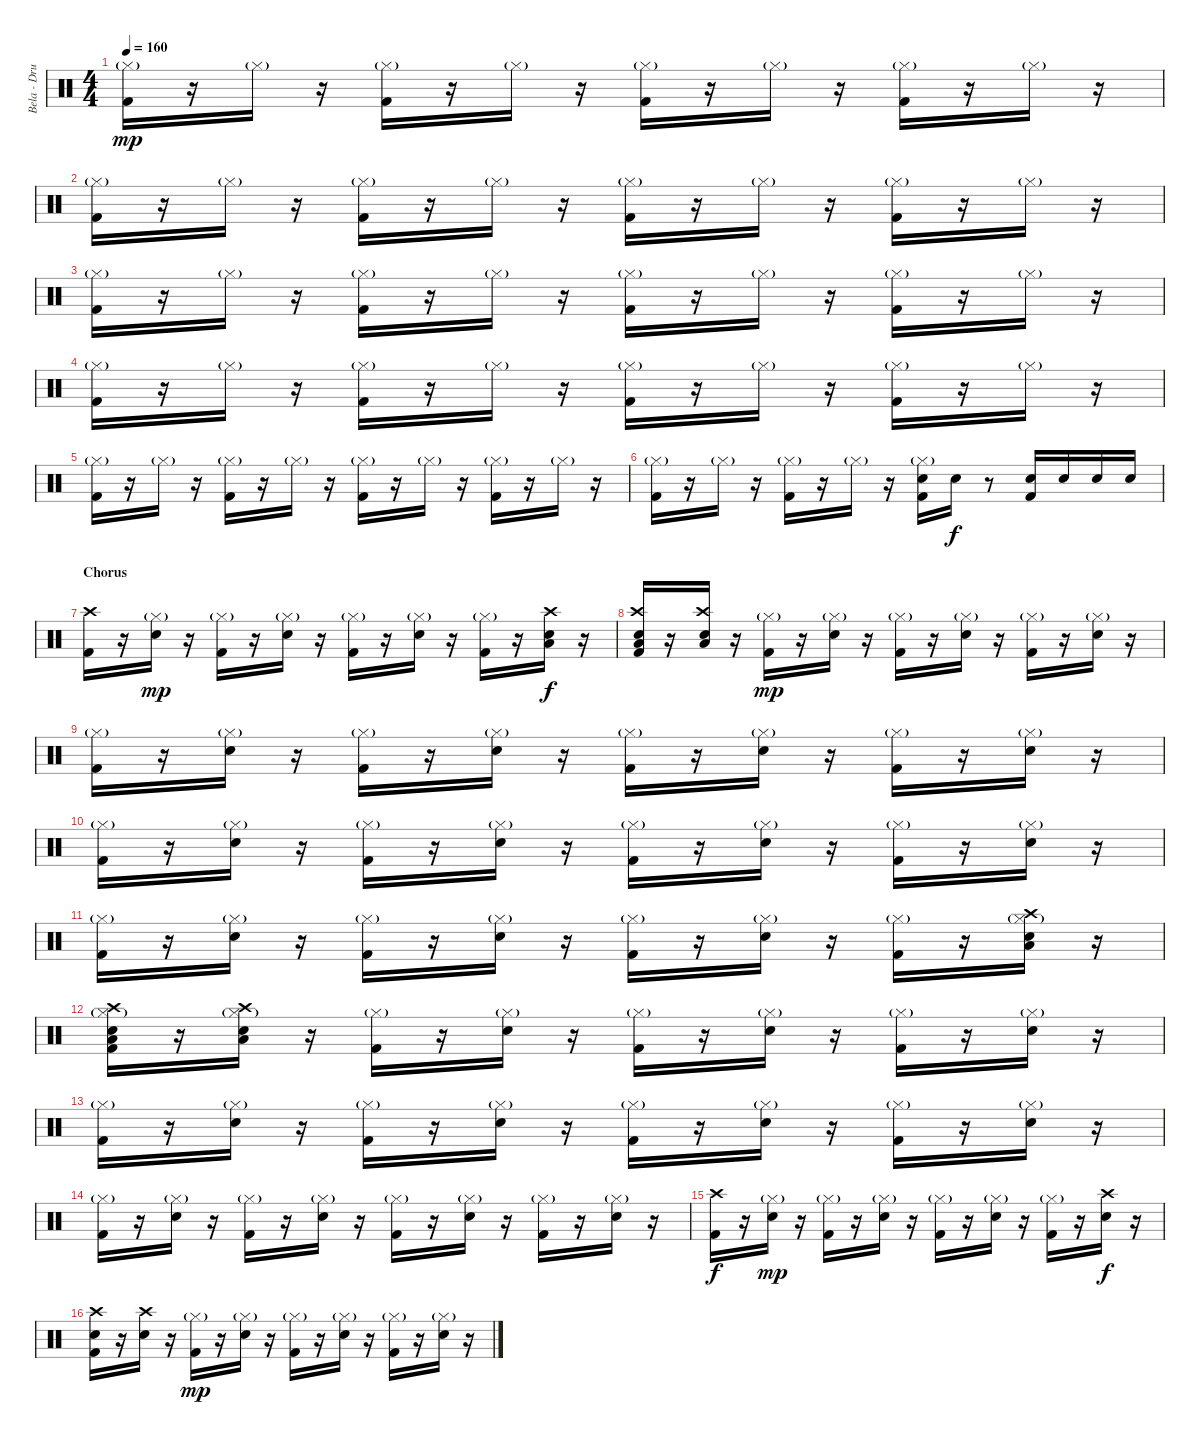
\track ("Bela - Drums" "Bela - Dru") {instrument percussion}
\staff {score}
\articulation defaults
\ts (4 4)
\tempo 160
\clef neutral
\ks c
("Hi-Hat (closed)"{g} "Kick (hit) 2").16{dy mp} r.16 "Hi-Hat (closed)"{g}.16 r.16 ("Hi-Hat (closed)"{g} "Kick (hit) 2").16 r.16 "Hi-Hat (closed)"{g}.16 r.16 ("Hi-Hat (closed)"{g} "Kick (hit) 2").16 r.16 "Hi-Hat (closed)"{g}.16 r.16 ("Hi-Hat (closed)"{g} "Kick (hit) 2").16 r.16 "Hi-Hat (closed)"{g}.16 r.16 |
("Hi-Hat (closed)"{g} "Kick (hit) 2").16 r.16 "Hi-Hat (closed)"{g}.16 r.16 ("Hi-Hat (closed)"{g} "Kick (hit) 2").16 r.16 "Hi-Hat (closed)"{g}.16 r.16 ("Hi-Hat (closed)"{g} "Kick (hit) 2").16 r.16 "Hi-Hat (closed)"{g}.16 r.16 ("Hi-Hat (closed)"{g} "Kick (hit) 2").16 r.16 "Hi-Hat (closed)"{g}.16 r.16 |
("Hi-Hat (closed)"{g} "Kick (hit) 2").16 r.16 "Hi-Hat (closed)"{g}.16 r.16 ("Hi-Hat (closed)"{g} "Kick (hit) 2").16 r.16 "Hi-Hat (closed)"{g}.16 r.16 ("Hi-Hat (closed)"{g} "Kick (hit) 2").16 r.16 "Hi-Hat (closed)"{g}.16 r.16 ("Hi-Hat (closed)"{g} "Kick (hit) 2").16 r.16 "Hi-Hat (closed)"{g}.16 r.16 |
("Hi-Hat (closed)"{g} "Kick (hit) 2").16 r.16 "Hi-Hat (closed)"{g}.16 r.16 ("Hi-Hat (closed)"{g} "Kick (hit) 2").16 r.16 "Hi-Hat (closed)"{g}.16 r.16 ("Hi-Hat (closed)"{g} "Kick (hit) 2").16 r.16 "Hi-Hat (closed)"{g}.16 r.16 ("Hi-Hat (closed)"{g} "Kick (hit) 2").16 r.16 "Hi-Hat (closed)"{g}.16 r.16 |
("Hi-Hat (closed)"{g} "Kick (hit) 2").16 r.16 "Hi-Hat (closed)"{g}.16 r.16 ("Hi-Hat (closed)"{g} "Kick (hit) 2").16 r.16 "Hi-Hat (closed)"{g}.16 r.16 ("Hi-Hat (closed)"{g} "Kick (hit) 2").16 r.16 "Hi-Hat (closed)"{g}.16 r.16 ("Hi-Hat (closed)"{g} "Kick (hit) 2").16 r.16 "Hi-Hat (closed)"{g}.16 r.16 |
("Hi-Hat (closed)"{g} "Kick (hit) 2").16 r.16 "Hi-Hat (closed)"{g}.16 r.16 ("Hi-Hat (closed)"{g} "Kick (hit) 2").16 r.16 "Hi-Hat (closed)"{g}.16 r.16 ("Hi-Hat (closed)"{g} "Electric Snare (hit)" "Kick (hit) 2").16 "Electric Snare (hit)".16{dy f} r.8 ("Electric Snare (hit)" "Kick (hit) 2").16 "Electric Snare (hit)".16 "Electric Snare (hit)".16 "Electric Snare (hit)".16 |
\section ("" "Chorus")
("Crash high (hit)" "Kick (hit) 2").16 r.16 ("Hi-Hat (closed)"{g} "Electric Snare (hit)").16{dy mp} r.16 ("Hi-Hat (closed)"{g} "Kick (hit) 2").16 r.16 ("Hi-Hat (closed)"{g} "Electric Snare (hit)").16 r.16 ("Hi-Hat (closed)"{g} "Kick (hit) 2").16 r.16 ("Hi-Hat (closed)"{g} "Electric Snare (hit)").16 r.16 ("Hi-Hat (closed)"{g} "Kick (hit) 2").16 r.16 ("Crash high (hit)" "Electric Snare (hit)" "Low Floor Tom (hit)").16{dy f} r.16 |
("Crash high (hit)" "Electric Snare (hit)" "Low Floor Tom (hit)" "Kick (hit) 2").16 r.16 ("Crash high (hit)" "Electric Snare (hit)" "Low Floor Tom (hit)").16 r.16 ("Hi-Hat (closed)"{g} "Kick (hit) 2").16{dy mp} r.16 ("Hi-Hat (closed)"{g} "Electric Snare (hit)").16 r.16 ("Hi-Hat (closed)"{g} "Kick (hit) 2").16 r.16 ("Hi-Hat (closed)"{g} "Electric Snare (hit)").16 r.16 ("Hi-Hat (closed)"{g} "Kick (hit) 2").16 r.16 ("Hi-Hat (closed)"{g} "Electric Snare (hit)").16 r.16 |
("Hi-Hat (closed)"{g} "Kick (hit) 2").16 r.16 ("Hi-Hat (closed)"{g} "Electric Snare (hit)").16 r.16 ("Hi-Hat (closed)"{g} "Kick (hit) 2").16 r.16 ("Hi-Hat (closed)"{g} "Electric Snare (hit)").16 r.16 ("Hi-Hat (closed)"{g} "Kick (hit) 2").16 r.16 ("Hi-Hat (closed)"{g} "Electric Snare (hit)").16 r.16 ("Hi-Hat (closed)"{g} "Kick (hit) 2").16 r.16 ("Hi-Hat (closed)"{g} "Electric Snare (hit)").16 r.16 |
("Hi-Hat (closed)"{g} "Kick (hit) 2").16 r.16 ("Hi-Hat (closed)"{g} "Electric Snare (hit)").16 r.16 ("Hi-Hat (closed)"{g} "Kick (hit) 2").16 r.16 ("Hi-Hat (closed)"{g} "Electric Snare (hit)").16 r.16 ("Hi-Hat (closed)"{g} "Kick (hit) 2").16 r.16 ("Hi-Hat (closed)"{g} "Electric Snare (hit)").16 r.16 ("Hi-Hat (closed)"{g} "Kick (hit) 2").16 r.16 ("Hi-Hat (closed)"{g} "Electric Snare (hit)").16 r.16 |
("Hi-Hat (closed)"{g} "Kick (hit) 2").16 r.16 ("Hi-Hat (closed)"{g} "Electric Snare (hit)").16 r.16 ("Hi-Hat (closed)"{g} "Kick (hit) 2").16 r.16 ("Hi-Hat (closed)"{g} "Electric Snare (hit)").16 r.16 ("Hi-Hat (closed)"{g} "Kick (hit) 2").16 r.16 ("Hi-Hat (closed)"{g} "Electric Snare (hit)").16 r.16 ("Hi-Hat (closed)"{g} "Kick (hit) 2").16 r.16 ("Hi-Hat (closed)"{g} "Crash high (hit)" "Electric Snare (hit)" "Low Floor Tom (hit)").16 r.16 |
("Hi-Hat (closed)"{g} "Crash high (hit)" "Electric Snare (hit)" "Low Floor Tom (hit)" "Kick (hit) 2").16 r.16 ("Hi-Hat (closed)"{g} "Crash high (hit)" "Electric Snare (hit)" "Low Floor Tom (hit)").16 r.16 ("Hi-Hat (closed)"{g} "Kick (hit) 2").16 r.16 ("Hi-Hat (closed)"{g} "Electric Snare (hit)").16 r.16 ("Hi-Hat (closed)"{g} "Kick (hit) 2").16 r.16 ("Hi-Hat (closed)"{g} "Electric Snare (hit)").16 r.16 ("Hi-Hat (closed)"{g} "Kick (hit) 2").16 r.16 ("Hi-Hat (closed)"{g} "Electric Snare (hit)").16 r.16 |
("Hi-Hat (closed)"{g} "Kick (hit) 2").16 r.16 ("Hi-Hat (closed)"{g} "Electric Snare (hit)").16 r.16 ("Hi-Hat (closed)"{g} "Kick (hit) 2").16 r.16 ("Hi-Hat (closed)"{g} "Electric Snare (hit)").16 r.16 ("Hi-Hat (closed)"{g} "Kick (hit) 2").16 r.16 ("Hi-Hat (closed)"{g} "Electric Snare (hit)").16 r.16 ("Hi-Hat (closed)"{g} "Kick (hit) 2").16 r.16 ("Hi-Hat (closed)"{g} "Electric Snare (hit)").16 r.16 |
("Hi-Hat (closed)"{g} "Kick (hit) 2").16 r.16 ("Hi-Hat (closed)"{g} "Electric Snare (hit)").16 r.16 ("Hi-Hat (closed)"{g} "Kick (hit) 2").16 r.16 ("Hi-Hat (closed)"{g} "Electric Snare (hit)").16 r.16 ("Hi-Hat (closed)"{g} "Kick (hit) 2").16 r.16 ("Hi-Hat (closed)"{g} "Electric Snare (hit)").16 r.16 ("Hi-Hat (closed)"{g} "Kick (hit) 2").16 r.16 ("Hi-Hat (closed)"{g} "Electric Snare (hit)").16 r.16 |
("Crash high (hit)" "Kick (hit) 2").16{dy f} r.16 ("Hi-Hat (closed)"{g} "Electric Snare (hit)").16{dy mp} r.16 ("Hi-Hat (closed)"{g} "Kick (hit) 2").16 r.16 ("Hi-Hat (closed)"{g} "Electric Snare (hit)").16 r.16 ("Hi-Hat (closed)"{g} "Kick (hit) 2").16 r.16 ("Hi-Hat (closed)"{g} "Electric Snare (hit)").16 r.16 ("Hi-Hat (closed)"{g} "Kick (hit) 2").16 r.16 ("Crash high (hit)" "Electric Snare (hit)").16{dy f} r.16 |
("Crash high (hit)" "Electric Snare (hit)" "Kick (hit) 2").16 r.16 ("Crash high (hit)" "Electric Snare (hit)").16 r.16 ("Hi-Hat (closed)"{g} "Kick (hit) 2").16{dy mp} r.16 ("Hi-Hat (closed)"{g} "Electric Snare (hit)").16 r.16 ("Hi-Hat (closed)"{g} "Kick (hit) 2").16 r.16 ("Hi-Hat (closed)"{g} "Electric Snare (hit)").16 r.16 ("Hi-Hat (closed)"{g} "Kick (hit) 2").16 r.16 ("Hi-Hat (closed)"{g} "Electric Snare (hit)").16 r.16
